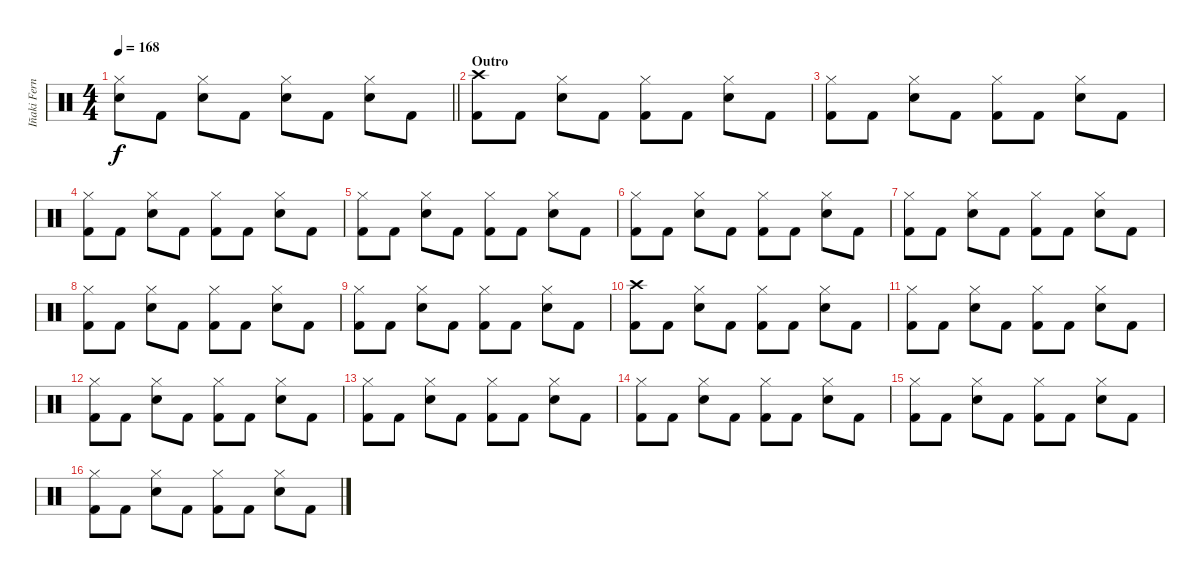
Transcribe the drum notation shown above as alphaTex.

\track ("Iñaki Fernández" "Iñaki Fern") {instrument percussion}
\staff {score}
\articulation defaults
\ts (4 4)
\tempo 168
\clef neutral
\barLineRight lightlight
\ks c
("Hi-Hat (closed)" "Snare (hit) 2").8{dy f} "Kick (hit) 2".8 ("Hi-Hat (closed)" "Snare (hit) 2").8 "Kick (hit) 2".8 ("Hi-Hat (closed)" "Snare (hit) 2").8 "Kick (hit) 2".8 ("Hi-Hat (closed)" "Snare (hit) 2").8 "Kick (hit) 2".8 |
\section ("" "Outro")
("Crash high (hit)" "Kick (hit) 2").8 "Kick (hit) 2".8 ("Hi-Hat (closed)" "Snare (hit) 2").8 "Kick (hit) 2".8 ("Hi-Hat (closed)" "Kick (hit) 2").8 "Kick (hit) 2".8 ("Hi-Hat (closed)" "Snare (hit) 2").8 "Kick (hit) 2".8 |
("Hi-Hat (closed)" "Kick (hit) 2").8 "Kick (hit) 2".8 ("Hi-Hat (closed)" "Snare (hit) 2").8 "Kick (hit) 2".8 ("Hi-Hat (closed)" "Kick (hit) 2").8 "Kick (hit) 2".8 ("Hi-Hat (closed)" "Snare (hit) 2").8 "Kick (hit) 2".8 |
("Hi-Hat (closed)" "Kick (hit) 2").8 "Kick (hit) 2".8 ("Hi-Hat (closed)" "Snare (hit) 2").8 "Kick (hit) 2".8 ("Hi-Hat (closed)" "Kick (hit) 2").8 "Kick (hit) 2".8 ("Hi-Hat (closed)" "Snare (hit) 2").8 "Kick (hit) 2".8 |
("Hi-Hat (closed)" "Kick (hit) 2").8 "Kick (hit) 2".8 ("Hi-Hat (closed)" "Snare (hit) 2").8 "Kick (hit) 2".8 ("Hi-Hat (closed)" "Kick (hit) 2").8 "Kick (hit) 2".8 ("Hi-Hat (closed)" "Snare (hit) 2").8 "Kick (hit) 2".8 |
("Hi-Hat (closed)" "Kick (hit) 2").8 "Kick (hit) 2".8 ("Hi-Hat (closed)" "Snare (hit) 2").8 "Kick (hit) 2".8 ("Hi-Hat (closed)" "Kick (hit) 2").8 "Kick (hit) 2".8 ("Hi-Hat (closed)" "Snare (hit) 2").8 "Kick (hit) 2".8 |
("Hi-Hat (closed)" "Kick (hit) 2").8 "Kick (hit) 2".8 ("Hi-Hat (closed)" "Snare (hit) 2").8 "Kick (hit) 2".8 ("Hi-Hat (closed)" "Kick (hit) 2").8 "Kick (hit) 2".8 ("Hi-Hat (closed)" "Snare (hit) 2").8 "Kick (hit) 2".8 |
("Hi-Hat (closed)" "Kick (hit) 2").8 "Kick (hit) 2".8 ("Hi-Hat (closed)" "Snare (hit) 2").8 "Kick (hit) 2".8 ("Hi-Hat (closed)" "Kick (hit) 2").8 "Kick (hit) 2".8 ("Hi-Hat (closed)" "Snare (hit) 2").8 "Kick (hit) 2".8 |
("Hi-Hat (closed)" "Kick (hit) 2").8 "Kick (hit) 2".8 ("Hi-Hat (closed)" "Snare (hit) 2").8 "Kick (hit) 2".8 ("Hi-Hat (closed)" "Kick (hit) 2").8 "Kick (hit) 2".8 ("Hi-Hat (closed)" "Snare (hit) 2").8 "Kick (hit) 2".8 |
("Crash high (hit)" "Kick (hit) 2").8 "Kick (hit) 2".8 ("Hi-Hat (closed)" "Snare (hit) 2").8 "Kick (hit) 2".8 ("Hi-Hat (closed)" "Kick (hit) 2").8 "Kick (hit) 2".8 ("Hi-Hat (closed)" "Snare (hit) 2").8 "Kick (hit) 2".8 |
("Hi-Hat (closed)" "Kick (hit) 2").8 "Kick (hit) 2".8 ("Hi-Hat (closed)" "Snare (hit) 2").8 "Kick (hit) 2".8 ("Hi-Hat (closed)" "Kick (hit) 2").8 "Kick (hit) 2".8 ("Hi-Hat (closed)" "Snare (hit) 2").8 "Kick (hit) 2".8 |
("Hi-Hat (closed)" "Kick (hit) 2").8 "Kick (hit) 2".8 ("Hi-Hat (closed)" "Snare (hit) 2").8 "Kick (hit) 2".8 ("Hi-Hat (closed)" "Kick (hit) 2").8 "Kick (hit) 2".8 ("Hi-Hat (closed)" "Snare (hit) 2").8 "Kick (hit) 2".8 |
("Hi-Hat (closed)" "Kick (hit) 2").8 "Kick (hit) 2".8 ("Hi-Hat (closed)" "Snare (hit) 2").8 "Kick (hit) 2".8 ("Hi-Hat (closed)" "Kick (hit) 2").8 "Kick (hit) 2".8 ("Hi-Hat (closed)" "Snare (hit) 2").8 "Kick (hit) 2".8 |
("Hi-Hat (closed)" "Kick (hit) 2").8 "Kick (hit) 2".8 ("Hi-Hat (closed)" "Snare (hit) 2").8 "Kick (hit) 2".8 ("Hi-Hat (closed)" "Kick (hit) 2").8 "Kick (hit) 2".8 ("Hi-Hat (closed)" "Snare (hit) 2").8 "Kick (hit) 2".8 |
("Hi-Hat (closed)" "Kick (hit) 2").8 "Kick (hit) 2".8 ("Hi-Hat (closed)" "Snare (hit) 2").8 "Kick (hit) 2".8 ("Hi-Hat (closed)" "Kick (hit) 2").8 "Kick (hit) 2".8 ("Hi-Hat (closed)" "Snare (hit) 2").8 "Kick (hit) 2".8 |
("Hi-Hat (closed)" "Kick (hit) 2").8 "Kick (hit) 2".8 ("Hi-Hat (closed)" "Snare (hit) 2").8 "Kick (hit) 2".8 ("Hi-Hat (closed)" "Kick (hit) 2").8 "Kick (hit) 2".8 ("Hi-Hat (closed)" "Snare (hit) 2").8 "Kick (hit) 2".8
